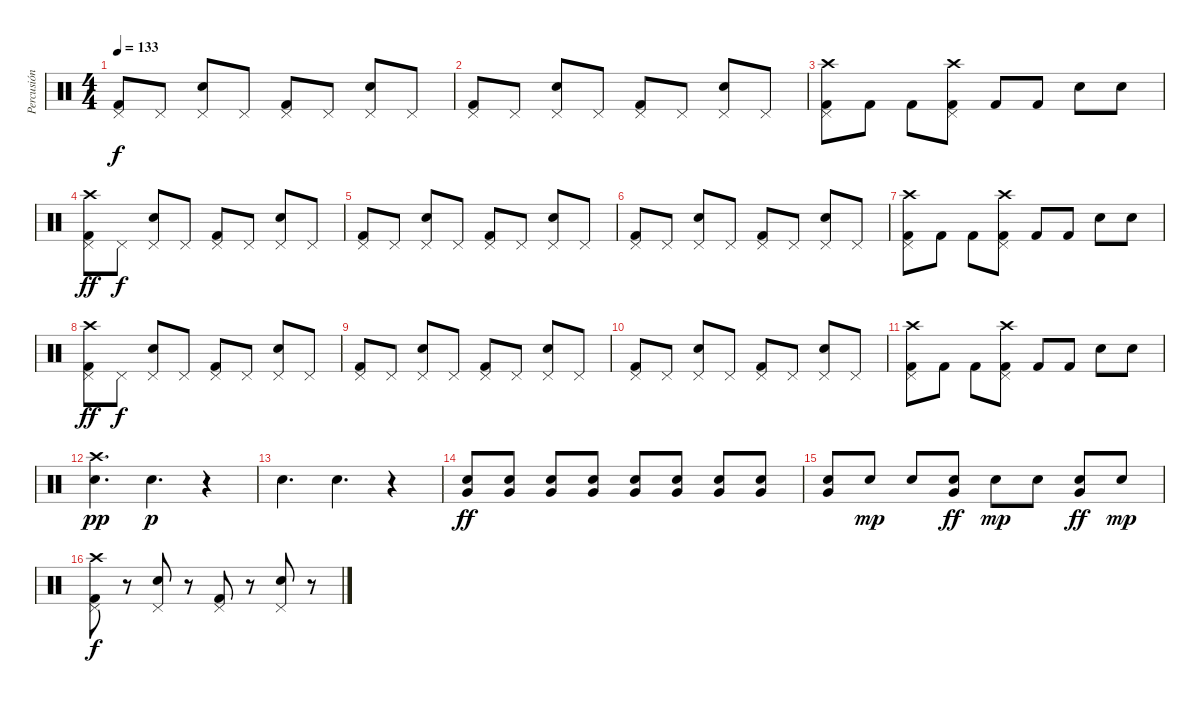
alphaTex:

\track ("Percusión" "Percusión") {instrument percussion}
\staff {score}
\articulation defaults
\ts (4 4)
\tempo 133
\clef neutral
\ks c
("Pedal Hi-Hat (hit)" "Kick (hit) 2").8{dy f} "Pedal Hi-Hat (hit)".8 ("Electric Snare (hit)" "Pedal Hi-Hat (hit)").8 "Pedal Hi-Hat (hit)".8 ("Pedal Hi-Hat (hit)" "Kick (hit) 2").8 "Pedal Hi-Hat (hit)".8 ("Electric Snare (hit)" "Pedal Hi-Hat (hit)").8 "Pedal Hi-Hat (hit)".8 |
("Pedal Hi-Hat (hit)" "Kick (hit) 2").8 "Pedal Hi-Hat (hit)".8 ("Electric Snare (hit)" "Pedal Hi-Hat (hit)").8 "Pedal Hi-Hat (hit)".8 ("Pedal Hi-Hat (hit)" "Kick (hit) 2").8 "Pedal Hi-Hat (hit)".8 ("Electric Snare (hit)" "Pedal Hi-Hat (hit)").8 "Pedal Hi-Hat (hit)".8 |
("Crash high (hit)" "Pedal Hi-Hat (hit)" "Kick (hit) 2").8 "Kick (hit) 2".8 "Kick (hit) 2".8 ("Crash high (hit)" "Pedal Hi-Hat (hit)" "Kick (hit) 2").8 "Kick (hit) 2".8 "Kick (hit) 2".8 "Electric Snare (hit)".8 "Electric Snare (hit)".8 |
("Crash high (hit)" "Pedal Hi-Hat (hit)" "Kick (hit) 2").8{dy ff} "Pedal Hi-Hat (hit)".8{dy f} ("Electric Snare (hit)" "Pedal Hi-Hat (hit)").8 "Pedal Hi-Hat (hit)".8 ("Pedal Hi-Hat (hit)" "Kick (hit) 2").8 "Pedal Hi-Hat (hit)".8 ("Electric Snare (hit)" "Pedal Hi-Hat (hit)").8 "Pedal Hi-Hat (hit)".8 |
("Pedal Hi-Hat (hit)" "Kick (hit) 2").8 "Pedal Hi-Hat (hit)".8 ("Electric Snare (hit)" "Pedal Hi-Hat (hit)").8 "Pedal Hi-Hat (hit)".8 ("Pedal Hi-Hat (hit)" "Kick (hit) 2").8 "Pedal Hi-Hat (hit)".8 ("Electric Snare (hit)" "Pedal Hi-Hat (hit)").8 "Pedal Hi-Hat (hit)".8 |
("Pedal Hi-Hat (hit)" "Kick (hit) 2").8 "Pedal Hi-Hat (hit)".8 ("Electric Snare (hit)" "Pedal Hi-Hat (hit)").8 "Pedal Hi-Hat (hit)".8 ("Pedal Hi-Hat (hit)" "Kick (hit) 2").8 "Pedal Hi-Hat (hit)".8 ("Electric Snare (hit)" "Pedal Hi-Hat (hit)").8 "Pedal Hi-Hat (hit)".8 |
("Crash high (hit)" "Pedal Hi-Hat (hit)" "Kick (hit) 2").8 "Kick (hit) 2".8 "Kick (hit) 2".8 ("Crash high (hit)" "Pedal Hi-Hat (hit)" "Kick (hit) 2").8 "Kick (hit) 2".8 "Kick (hit) 2".8 "Electric Snare (hit)".8 "Electric Snare (hit)".8 |
("Crash high (hit)" "Pedal Hi-Hat (hit)" "Kick (hit) 2").8{dy ff} "Pedal Hi-Hat (hit)".8{dy f} ("Electric Snare (hit)" "Pedal Hi-Hat (hit)").8 "Pedal Hi-Hat (hit)".8 ("Pedal Hi-Hat (hit)" "Kick (hit) 2").8 "Pedal Hi-Hat (hit)".8 ("Electric Snare (hit)" "Pedal Hi-Hat (hit)").8 "Pedal Hi-Hat (hit)".8 |
("Pedal Hi-Hat (hit)" "Kick (hit) 2").8 "Pedal Hi-Hat (hit)".8 ("Electric Snare (hit)" "Pedal Hi-Hat (hit)").8 "Pedal Hi-Hat (hit)".8 ("Pedal Hi-Hat (hit)" "Kick (hit) 2").8 "Pedal Hi-Hat (hit)".8 ("Electric Snare (hit)" "Pedal Hi-Hat (hit)").8 "Pedal Hi-Hat (hit)".8 |
("Pedal Hi-Hat (hit)" "Kick (hit) 2").8 "Pedal Hi-Hat (hit)".8 ("Electric Snare (hit)" "Pedal Hi-Hat (hit)").8 "Pedal Hi-Hat (hit)".8 ("Pedal Hi-Hat (hit)" "Kick (hit) 2").8 "Pedal Hi-Hat (hit)".8 ("Electric Snare (hit)" "Pedal Hi-Hat (hit)").8 "Pedal Hi-Hat (hit)".8 |
("Crash high (hit)" "Pedal Hi-Hat (hit)" "Kick (hit) 2").8 "Kick (hit) 2".8 "Kick (hit) 2".8 ("Crash high (hit)" "Pedal Hi-Hat (hit)" "Kick (hit) 2").8 "Kick (hit) 2".8 "Kick (hit) 2".8 "Electric Snare (hit)".8 "Electric Snare (hit)".8 |
("Crash high (hit)" "Snare (hit) 2").4{d dy pp} "Snare (hit) 2".4{d dy p} r.4 |
"Snare (hit) 2".4{d} "Snare (hit) 2".4{d} r.4{volume 0} |
("Electric Snare (hit)" "Very Low Tom (hit)").8{dy ff volume 10} ("Electric Snare (hit)" "Very Low Tom (hit)").8 ("Electric Snare (hit)" "Very Low Tom (hit)").8 ("Electric Snare (hit)" "Very Low Tom (hit)").8 ("Electric Snare (hit)" "Very Low Tom (hit)").8 ("Electric Snare (hit)" "Very Low Tom (hit)").8 ("Electric Snare (hit)" "Very Low Tom (hit)").8 ("Electric Snare (hit)" "Very Low Tom (hit)").8 |
("Electric Snare (hit)" "Very Low Tom (hit)").8 "Electric Snare (hit)".8{dy mp} "Electric Snare (hit)".8 ("Electric Snare (hit)" "Very Low Tom (hit)").8{dy ff} "Electric Snare (hit)".8{dy mp} "Electric Snare (hit)".8 ("Electric Snare (hit)" "Very Low Tom (hit)").8{dy ff} "Electric Snare (hit)".8{dy mp} |
("Crash high (hit)" "Pedal Hi-Hat (hit)" "Kick (hit) 2").8{dy f} r.8 ("Electric Snare (hit)" "Pedal Hi-Hat (hit)").8 r.8 ("Pedal Hi-Hat (hit)" "Kick (hit) 2").8 r.8 ("Electric Snare (hit)" "Pedal Hi-Hat (hit)").8 r.8
